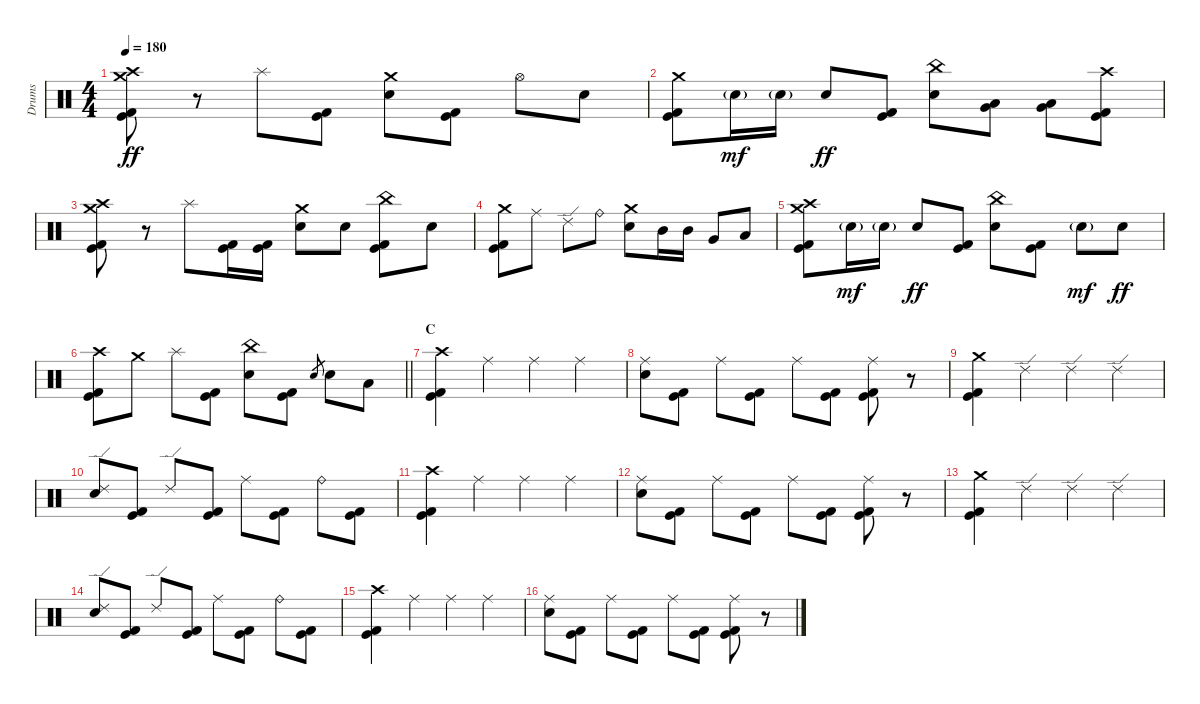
\track ("Drums" "Drums") {instrument percussion}
\staff {score}
\articulation defaults
\ts (4 4)
\tempo 180
\clef neutral
\ks c
("Crash medium (hit)" "Crash high (hit)" "Kick (hit)" "Kick (hit) 2").8{dy ff} r.8 "Splash (hit)".8 ("Kick (hit)" "Kick (hit) 2").8 ("Crash medium (hit)" "Electric Snare (hit)").8 ("Kick (hit)" "Kick (hit) 2").8 "Hi-Hat (open)".8 "Electric Snare (hit)".8 |
("Crash medium (hit)" "Kick (hit)" "Kick (hit) 2").8 "Electric Snare (hit)"{g}.16{dy mf} "Electric Snare (hit)"{g}.16 "Electric Snare (hit)".8{dy ff} ("Kick (hit)" "Kick (hit) 2").8 ("China (hit)" "Electric Snare (hit)").8 ("Low Tom (hit)" "Very Low Tom (hit)").8 ("Very Low Tom (hit)" "Low Floor Tom (hit)").8 ("Crash high (hit)" "Kick (hit)" "Kick (hit) 2").8 |
("Crash medium (hit)" "Crash high (hit)" "Kick (hit)" "Kick (hit) 2").8 r.8 "Splash (hit)".8 ("Kick (hit)" "Kick (hit) 2").16 ("Kick (hit)" "Kick (hit) 2").16 ("Crash medium (hit)" "Electric Snare (hit)").8 "Electric Snare (hit)".8 ("China (hit)" "Kick (hit)" "Kick (hit) 2").8 "Electric Snare (hit)".8 |
("Crash medium (hit)" "Kick (hit)" "Kick (hit) 2").8 "Ride (middle)".8 "Ride (edge) 2".8 "Ride (bell)".8 ("Crash medium (hit)" "Electric Snare (hit)").8 "Mid Tom (hit)".16 "Mid Tom (hit)".16 "Very Low Tom (hit)".8 "Low Floor Tom (hit)".8 |
("Crash medium (hit)" "Crash high (hit)" "Kick (hit)" "Kick (hit) 2").8 "Electric Snare (hit)"{g}.16{dy mf} "Electric Snare (hit)"{g}.16 "Electric Snare (hit)".8{dy ff} ("Kick (hit)" "Kick (hit) 2").8 ("China (hit)" "Electric Snare (hit)").8 ("Kick (hit)" "Kick (hit) 2").8 "Electric Snare (hit)"{g}.8{dy mf} "Electric Snare (hit)".8{dy ff} |
\barLineRight lightlight
("Crash high (hit)" "Kick (hit)" "Kick (hit) 2").8 "Crash medium (hit)".8 "Splash (hit)".8 ("Kick (hit)" "Kick (hit) 2").8 ("China (hit)" "Electric Snare (hit)").8 ("Kick (hit)" "Kick (hit) 2").8 "Electric Snare (hit)".8{gr} "Electric Snare (hit)".8 "Low Floor Tom (hit)".8 |
\section ("" "C")
("Crash high (hit)" "Kick (hit)" "Kick (hit) 2").4 "Ride (middle)".4 "Ride (middle)".4 "Ride (middle)".4 |
("Ride (middle)" "Electric Snare (hit)").8 ("Kick (hit)" "Kick (hit) 2").8 "Ride (middle)".8 ("Kick (hit)" "Kick (hit) 2").8 "Ride (middle)".8 ("Kick (hit)" "Kick (hit) 2").8 ("Ride (middle)" "Kick (hit)" "Kick (hit) 2").8 r.8 |
("Crash medium (hit)" "Kick (hit)" "Kick (hit) 2").4 "Ride (edge) 2".4 "Ride (edge) 2".4 "Ride (edge) 2".4 |
("Ride (edge) 2" "Electric Snare (hit)").8 ("Kick (hit)" "Kick (hit) 2").8 "Ride (edge) 2".8 ("Kick (hit)" "Kick (hit) 2").8 "Ride (middle)".8 ("Kick (hit)" "Kick (hit) 2").8 "Ride (bell)".8 ("Kick (hit)" "Kick (hit) 2").8 |
("Crash high (hit)" "Kick (hit)" "Kick (hit) 2").4 "Ride (middle)".4 "Ride (middle)".4 "Ride (middle)".4 |
("Ride (middle)" "Electric Snare (hit)").8 ("Kick (hit)" "Kick (hit) 2").8 "Ride (middle)".8 ("Kick (hit)" "Kick (hit) 2").8 "Ride (middle)".8 ("Kick (hit)" "Kick (hit) 2").8 ("Ride (middle)" "Kick (hit)" "Kick (hit) 2").8 r.8 |
("Crash medium (hit)" "Kick (hit)" "Kick (hit) 2").4 "Ride (edge) 2".4 "Ride (edge) 2".4 "Ride (edge) 2".4 |
("Ride (edge) 2" "Electric Snare (hit)").8 ("Kick (hit)" "Kick (hit) 2").8 "Ride (edge) 2".8 ("Kick (hit)" "Kick (hit) 2").8 "Ride (middle)".8 ("Kick (hit)" "Kick (hit) 2").8 "Ride (bell)".8 ("Kick (hit)" "Kick (hit) 2").8 |
("Crash high (hit)" "Kick (hit)" "Kick (hit) 2").4 "Ride (middle)".4 "Ride (middle)".4 "Ride (middle)".4 |
("Ride (middle)" "Electric Snare (hit)").8 ("Kick (hit)" "Kick (hit) 2").8 "Ride (middle)".8 ("Kick (hit)" "Kick (hit) 2").8 "Ride (middle)".8 ("Kick (hit)" "Kick (hit) 2").8 ("Ride (middle)" "Kick (hit)" "Kick (hit) 2").8 r.8
